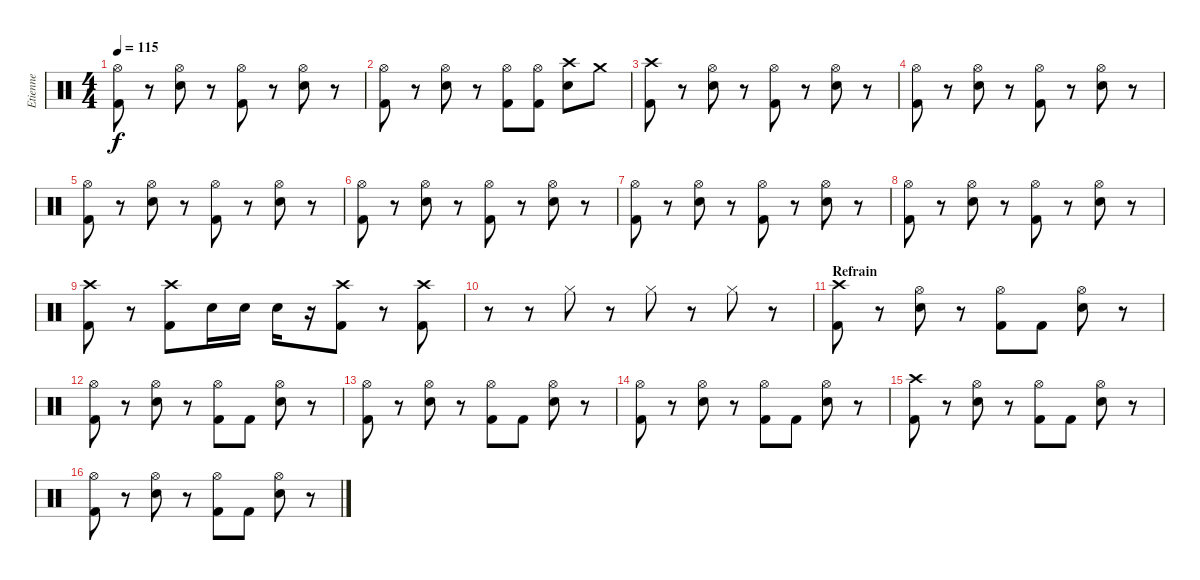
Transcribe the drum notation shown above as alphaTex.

\track ("Etienne" "Etienne") {instrument percussion}
\staff {score}
\articulation defaults
\ts (4 4)
\tempo 115
\clef neutral
\ks c
("Hi-Hat (open)" "Kick (hit) 2").8{dy f} r.8 ("Hi-Hat (open)" "Electric Snare (hit)").8 r.8 ("Hi-Hat (open)" "Kick (hit) 2").8 r.8 ("Hi-Hat (open)" "Electric Snare (hit)").8 r.8 |
("Hi-Hat (open)" "Kick (hit) 2").8 r.8 ("Hi-Hat (open)" "Electric Snare (hit)").8 r.8 ("Hi-Hat (open)" "Kick (hit) 2").8 ("Hi-Hat (open)" "Kick (hit) 2").8 ("Crash high (hit)" "Electric Snare (hit)").8 "Crash medium (hit)".8 |
("Crash high (hit)" "Kick (hit) 2").8 r.8 ("Hi-Hat (open)" "Electric Snare (hit)").8 r.8 ("Hi-Hat (open)" "Kick (hit) 2").8 r.8 ("Hi-Hat (open)" "Electric Snare (hit)").8 r.8 |
("Hi-Hat (open)" "Kick (hit) 2").8 r.8 ("Hi-Hat (open)" "Electric Snare (hit)").8 r.8 ("Hi-Hat (open)" "Kick (hit) 2").8 r.8 ("Hi-Hat (open)" "Electric Snare (hit)").8 r.8 |
("Hi-Hat (open)" "Kick (hit) 2").8 r.8 ("Hi-Hat (open)" "Electric Snare (hit)").8 r.8 ("Hi-Hat (open)" "Kick (hit) 2").8 r.8 ("Hi-Hat (open)" "Electric Snare (hit)").8 r.8 |
("Hi-Hat (open)" "Kick (hit) 2").8 r.8 ("Hi-Hat (open)" "Electric Snare (hit)").8 r.8 ("Hi-Hat (open)" "Kick (hit) 2").8 r.8 ("Hi-Hat (open)" "Electric Snare (hit)").8 r.8 |
("Hi-Hat (open)" "Kick (hit) 2").8 r.8 ("Hi-Hat (open)" "Electric Snare (hit)").8 r.8 ("Hi-Hat (open)" "Kick (hit) 2").8 r.8 ("Hi-Hat (open)" "Electric Snare (hit)").8 r.8 |
("Hi-Hat (open)" "Kick (hit) 2").8 r.8 ("Hi-Hat (open)" "Electric Snare (hit)").8 r.8 ("Hi-Hat (open)" "Kick (hit) 2").8 r.8 ("Hi-Hat (open)" "Electric Snare (hit)").8 r.8 |
("Crash high (hit)" "Kick (hit) 2").8 r.8 ("Crash high (hit)" "Kick (hit) 2").8 "Electric Snare (hit)".16 "Electric Snare (hit)".16 "Electric Snare (hit)".16 r.16 ("Crash high (hit)" "Kick (hit) 2").8 r.8 ("Crash high (hit)" "Kick (hit) 2").8 |
r.8 r.8 "Hi-Hat (closed)".8 r.8 "Hi-Hat (closed)".8 r.8 "Hi-Hat (closed)".8 r.8 |
\section ("" "Refrain")
("Crash high (hit)" "Kick (hit) 2").8 r.8 ("Hi-Hat (open)" "Electric Snare (hit)").8 r.8 ("Hi-Hat (open)" "Kick (hit) 2").8 "Kick (hit) 2".8 ("Hi-Hat (open)" "Electric Snare (hit)").8 r.8 |
("Hi-Hat (open)" "Kick (hit) 2").8 r.8 ("Hi-Hat (open)" "Electric Snare (hit)").8 r.8 ("Hi-Hat (open)" "Kick (hit) 2").8 "Kick (hit) 2".8 ("Hi-Hat (open)" "Electric Snare (hit)").8 r.8 |
("Hi-Hat (open)" "Kick (hit) 2").8 r.8 ("Hi-Hat (open)" "Electric Snare (hit)").8 r.8 ("Hi-Hat (open)" "Kick (hit) 2").8 "Kick (hit) 2".8 ("Hi-Hat (open)" "Electric Snare (hit)").8 r.8 |
("Hi-Hat (open)" "Kick (hit) 2").8 r.8 ("Hi-Hat (open)" "Electric Snare (hit)").8 r.8 ("Hi-Hat (open)" "Kick (hit) 2").8 "Kick (hit) 2".8 ("Hi-Hat (open)" "Electric Snare (hit)").8 r.8 |
("Crash high (hit)" "Kick (hit) 2").8 r.8 ("Hi-Hat (open)" "Electric Snare (hit)").8 r.8 ("Hi-Hat (open)" "Kick (hit) 2").8 "Kick (hit) 2".8 ("Hi-Hat (open)" "Electric Snare (hit)").8 r.8 |
("Hi-Hat (open)" "Kick (hit) 2").8 r.8 ("Hi-Hat (open)" "Electric Snare (hit)").8 r.8 ("Hi-Hat (open)" "Kick (hit) 2").8 "Kick (hit) 2".8 ("Hi-Hat (open)" "Electric Snare (hit)").8 r.8
